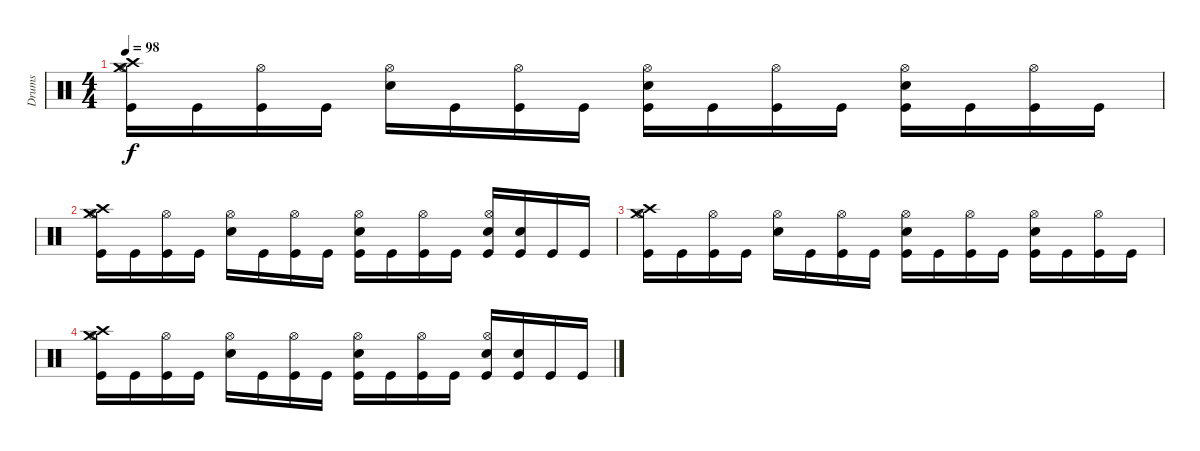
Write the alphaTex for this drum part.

\track ("Drums" "Drums") {instrument percussion}
\staff {score}
\articulation defaults
\ts (4 4)
\tempo 98
\clef neutral
\ks c
("Crash high (hit)" "Crash medium (hit)" "Kick (hit)" "Hi-Hat (open)").16{dy f volume 7} "Kick (hit)".16 ("Hi-Hat (open)" "Kick (hit)").16 "Kick (hit)".16 ("Hi-Hat (open)" "Electric Snare (hit)").16 "Kick (hit)".16 ("Hi-Hat (open)" "Kick (hit)").16 "Kick (hit)".16 ("Electric Snare (hit)" "Hi-Hat (open)" "Kick (hit)").16 "Kick (hit)".16 ("Hi-Hat (open)" "Kick (hit)").16 "Kick (hit)".16 ("Electric Snare (hit)" "Hi-Hat (open)" "Kick (hit)").16 "Kick (hit)".16 ("Hi-Hat (open)" "Kick (hit)").16 "Kick (hit)".16 |
("Hi-Hat (open)" "Crash high (hit)" "Crash medium (hit)" "Kick (hit)").16{volume 5} "Kick (hit)".16 ("Hi-Hat (open)" "Kick (hit)").16 "Kick (hit)".16 ("Hi-Hat (open)" "Electric Snare (hit)").16 "Kick (hit)".16 ("Hi-Hat (open)" "Kick (hit)").16 "Kick (hit)".16 ("Electric Snare (hit)" "Hi-Hat (open)" "Kick (hit)").16 "Kick (hit)".16 ("Hi-Hat (open)" "Kick (hit)").16 "Kick (hit)".16 ("Electric Snare (hit)" "Hi-Hat (open)" "Kick (hit)").16 ("Electric Snare (hit)" "Kick (hit)").16 "Kick (hit)".16 "Kick (hit)".16 |
("Crash high (hit)" "Crash medium (hit)" "Kick (hit)" "Hi-Hat (open)").16{volume 3} "Kick (hit)".16 ("Hi-Hat (open)" "Kick (hit)").16 "Kick (hit)".16 ("Hi-Hat (open)" "Electric Snare (hit)").16 "Kick (hit)".16 ("Hi-Hat (open)" "Kick (hit)").16 "Kick (hit)".16 ("Electric Snare (hit)" "Hi-Hat (open)" "Kick (hit)").16 "Kick (hit)".16 ("Hi-Hat (open)" "Kick (hit)").16 "Kick (hit)".16 ("Electric Snare (hit)" "Hi-Hat (open)" "Kick (hit)").16 "Kick (hit)".16 ("Hi-Hat (open)" "Kick (hit)").16 "Kick (hit)".16 |
("Hi-Hat (open)" "Crash high (hit)" "Crash medium (hit)" "Kick (hit)").16{volume 1} "Kick (hit)".16 ("Hi-Hat (open)" "Kick (hit)").16 "Kick (hit)".16 ("Hi-Hat (open)" "Electric Snare (hit)").16 "Kick (hit)".16 ("Hi-Hat (open)" "Kick (hit)").16 "Kick (hit)".16 ("Electric Snare (hit)" "Hi-Hat (open)" "Kick (hit)").16 "Kick (hit)".16 ("Hi-Hat (open)" "Kick (hit)").16 "Kick (hit)".16 ("Electric Snare (hit)" "Hi-Hat (open)" "Kick (hit)").16 ("Electric Snare (hit)" "Kick (hit)").16 "Kick (hit)".16 "Kick (hit)".16
